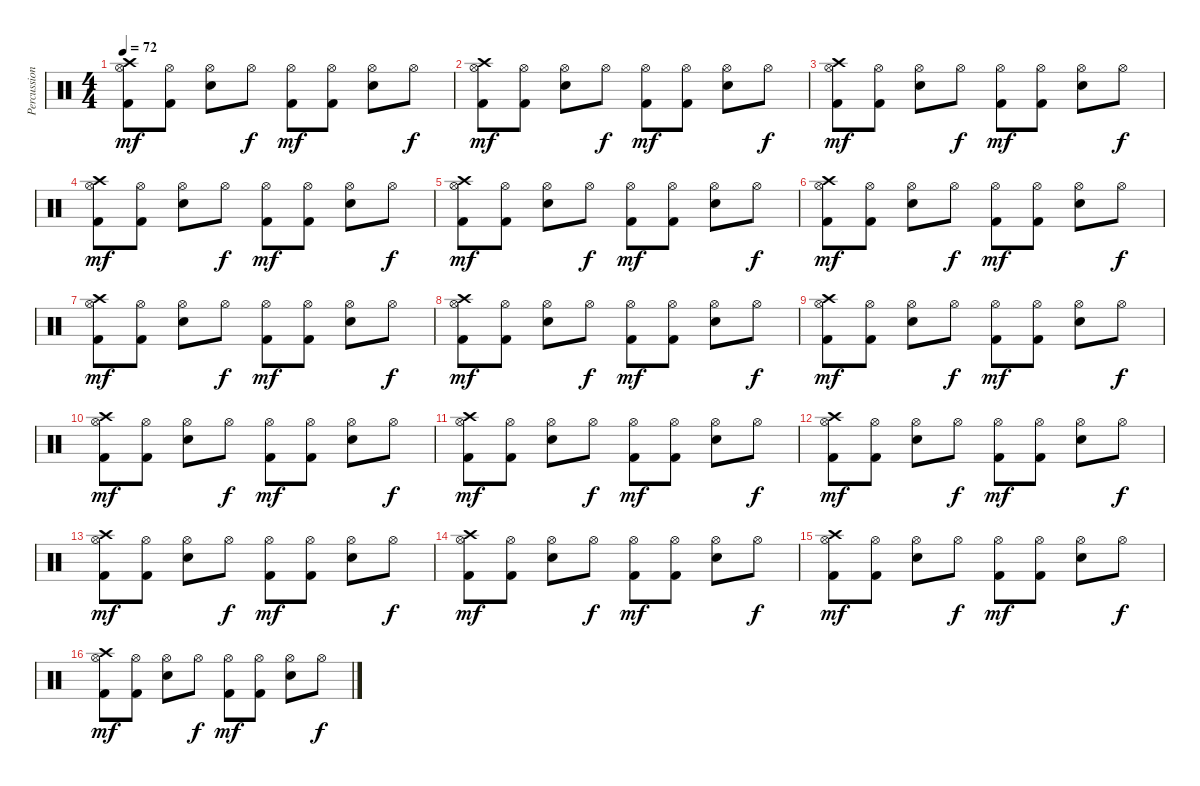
\track ("Percussion" "Percussion") {instrument percussion}
\staff {score}
\articulation defaults
\ts (4 4)
\tempo 72
\clef neutral
\ks c
("Kick (hit) 2" "Hi-Hat (open)" "Crash high (hit)").8{dy mf} ("Kick (hit) 2" "Hi-Hat (open)").8 ("Snare (hit) 2" "Hi-Hat (open)").8 "Hi-Hat (open)".8{dy f} ("Kick (hit) 2" "Hi-Hat (open)").8{dy mf} ("Kick (hit) 2" "Hi-Hat (open)").8 ("Snare (hit) 2" "Hi-Hat (open)").8 "Hi-Hat (open)".8{dy f} |
("Kick (hit) 2" "Hi-Hat (open)" "Crash high (hit)").8{dy mf} ("Kick (hit) 2" "Hi-Hat (open)").8 ("Snare (hit) 2" "Hi-Hat (open)").8 "Hi-Hat (open)".8{dy f} ("Kick (hit) 2" "Hi-Hat (open)").8{dy mf} ("Kick (hit) 2" "Hi-Hat (open)").8 ("Snare (hit) 2" "Hi-Hat (open)").8 "Hi-Hat (open)".8{dy f} |
("Kick (hit) 2" "Hi-Hat (open)" "Crash high (hit)").8{dy mf} ("Kick (hit) 2" "Hi-Hat (open)").8 ("Snare (hit) 2" "Hi-Hat (open)").8 "Hi-Hat (open)".8{dy f} ("Kick (hit) 2" "Hi-Hat (open)").8{dy mf} ("Kick (hit) 2" "Hi-Hat (open)").8 ("Snare (hit) 2" "Hi-Hat (open)").8 "Hi-Hat (open)".8{dy f} |
("Kick (hit) 2" "Hi-Hat (open)" "Crash high (hit)").8{dy mf} ("Kick (hit) 2" "Hi-Hat (open)").8 ("Snare (hit) 2" "Hi-Hat (open)").8 "Hi-Hat (open)".8{dy f} ("Kick (hit) 2" "Hi-Hat (open)").8{dy mf} ("Kick (hit) 2" "Hi-Hat (open)").8 ("Snare (hit) 2" "Hi-Hat (open)").8 "Hi-Hat (open)".8{dy f} |
("Kick (hit) 2" "Hi-Hat (open)" "Crash high (hit)").8{dy mf} ("Kick (hit) 2" "Hi-Hat (open)").8 ("Snare (hit) 2" "Hi-Hat (open)").8 "Hi-Hat (open)".8{dy f} ("Kick (hit) 2" "Hi-Hat (open)").8{dy mf} ("Kick (hit) 2" "Hi-Hat (open)").8 ("Snare (hit) 2" "Hi-Hat (open)").8 "Hi-Hat (open)".8{dy f} |
("Kick (hit) 2" "Hi-Hat (open)" "Crash high (hit)").8{dy mf} ("Kick (hit) 2" "Hi-Hat (open)").8 ("Snare (hit) 2" "Hi-Hat (open)").8 "Hi-Hat (open)".8{dy f} ("Kick (hit) 2" "Hi-Hat (open)").8{dy mf} ("Kick (hit) 2" "Hi-Hat (open)").8 ("Snare (hit) 2" "Hi-Hat (open)").8 "Hi-Hat (open)".8{dy f} |
("Kick (hit) 2" "Hi-Hat (open)" "Crash high (hit)").8{dy mf} ("Kick (hit) 2" "Hi-Hat (open)").8 ("Snare (hit) 2" "Hi-Hat (open)").8 "Hi-Hat (open)".8{dy f} ("Kick (hit) 2" "Hi-Hat (open)").8{dy mf} ("Kick (hit) 2" "Hi-Hat (open)").8 ("Snare (hit) 2" "Hi-Hat (open)").8 "Hi-Hat (open)".8{dy f} |
("Kick (hit) 2" "Hi-Hat (open)" "Crash high (hit)").8{dy mf} ("Kick (hit) 2" "Hi-Hat (open)").8 ("Snare (hit) 2" "Hi-Hat (open)").8 "Hi-Hat (open)".8{dy f} ("Kick (hit) 2" "Hi-Hat (open)").8{dy mf} ("Kick (hit) 2" "Hi-Hat (open)").8 ("Snare (hit) 2" "Hi-Hat (open)").8 "Hi-Hat (open)".8{dy f} |
("Kick (hit) 2" "Hi-Hat (open)" "Crash high (hit)").8{dy mf} ("Kick (hit) 2" "Hi-Hat (open)").8 ("Snare (hit) 2" "Hi-Hat (open)").8 "Hi-Hat (open)".8{dy f} ("Kick (hit) 2" "Hi-Hat (open)").8{dy mf} ("Kick (hit) 2" "Hi-Hat (open)").8 ("Snare (hit) 2" "Hi-Hat (open)").8 "Hi-Hat (open)".8{dy f} |
("Kick (hit) 2" "Hi-Hat (open)" "Crash high (hit)").8{dy mf} ("Kick (hit) 2" "Hi-Hat (open)").8 ("Snare (hit) 2" "Hi-Hat (open)").8 "Hi-Hat (open)".8{dy f} ("Kick (hit) 2" "Hi-Hat (open)").8{dy mf} ("Kick (hit) 2" "Hi-Hat (open)").8 ("Snare (hit) 2" "Hi-Hat (open)").8 "Hi-Hat (open)".8{dy f} |
("Kick (hit) 2" "Hi-Hat (open)" "Crash high (hit)").8{dy mf} ("Kick (hit) 2" "Hi-Hat (open)").8 ("Snare (hit) 2" "Hi-Hat (open)").8 "Hi-Hat (open)".8{dy f} ("Kick (hit) 2" "Hi-Hat (open)").8{dy mf} ("Kick (hit) 2" "Hi-Hat (open)").8 ("Snare (hit) 2" "Hi-Hat (open)").8 "Hi-Hat (open)".8{dy f} |
("Kick (hit) 2" "Hi-Hat (open)" "Crash high (hit)").8{dy mf} ("Kick (hit) 2" "Hi-Hat (open)").8 ("Snare (hit) 2" "Hi-Hat (open)").8 "Hi-Hat (open)".8{dy f} ("Kick (hit) 2" "Hi-Hat (open)").8{dy mf} ("Kick (hit) 2" "Hi-Hat (open)").8 ("Snare (hit) 2" "Hi-Hat (open)").8 "Hi-Hat (open)".8{dy f} |
("Kick (hit) 2" "Hi-Hat (open)" "Crash high (hit)").8{dy mf} ("Kick (hit) 2" "Hi-Hat (open)").8 ("Snare (hit) 2" "Hi-Hat (open)").8 "Hi-Hat (open)".8{dy f} ("Kick (hit) 2" "Hi-Hat (open)").8{dy mf} ("Kick (hit) 2" "Hi-Hat (open)").8 ("Snare (hit) 2" "Hi-Hat (open)").8 "Hi-Hat (open)".8{dy f} |
("Kick (hit) 2" "Hi-Hat (open)" "Crash high (hit)").8{dy mf} ("Kick (hit) 2" "Hi-Hat (open)").8 ("Snare (hit) 2" "Hi-Hat (open)").8 "Hi-Hat (open)".8{dy f} ("Kick (hit) 2" "Hi-Hat (open)").8{dy mf} ("Kick (hit) 2" "Hi-Hat (open)").8 ("Snare (hit) 2" "Hi-Hat (open)").8 "Hi-Hat (open)".8{dy f} |
("Kick (hit) 2" "Hi-Hat (open)" "Crash high (hit)").8{dy mf} ("Kick (hit) 2" "Hi-Hat (open)").8 ("Snare (hit) 2" "Hi-Hat (open)").8 "Hi-Hat (open)".8{dy f} ("Kick (hit) 2" "Hi-Hat (open)").8{dy mf} ("Kick (hit) 2" "Hi-Hat (open)").8 ("Snare (hit) 2" "Hi-Hat (open)").8 "Hi-Hat (open)".8{dy f} |
("Kick (hit) 2" "Hi-Hat (open)" "Crash high (hit)").8{dy mf} ("Kick (hit) 2" "Hi-Hat (open)").8 ("Snare (hit) 2" "Hi-Hat (open)").8 "Hi-Hat (open)".8{dy f} ("Kick (hit) 2" "Hi-Hat (open)").8{dy mf} ("Kick (hit) 2" "Hi-Hat (open)").8 ("Snare (hit) 2" "Hi-Hat (open)").8 "Hi-Hat (open)".8{dy f}
